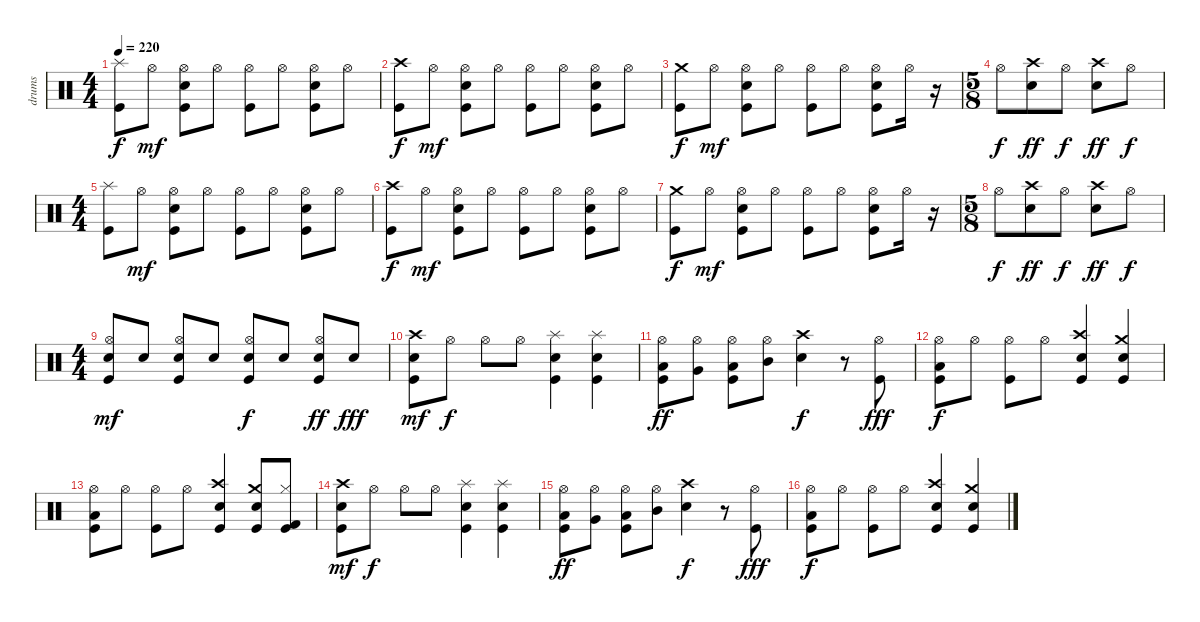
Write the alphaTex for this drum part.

\track ("drums" "drums") {instrument percussion}
\staff {score}
\articulation defaults
\ts (4 4)
\tempo 220
\clef neutral
\ks c
("Splash (hit)" "Kick (hit)").8{dy f} "Hi-Hat (open)".8{dy mf} ("Hi-Hat (open)" "Snare (hit) 2" "Kick (hit)").8 "Hi-Hat (open)".8 ("Hi-Hat (open)" "Kick (hit)").8 "Hi-Hat (open)".8 ("Hi-Hat (open)" "Snare (hit) 2" "Kick (hit)").8 "Hi-Hat (open)".8 |
("Crash high (hit)" "Kick (hit)").8{dy f} "Hi-Hat (open)".8{dy mf} ("Hi-Hat (open)" "Snare (hit) 2" "Kick (hit)").8 "Hi-Hat (open)".8 ("Hi-Hat (open)" "Kick (hit)").8 "Hi-Hat (open)".8 ("Hi-Hat (open)" "Snare (hit) 2" "Kick (hit)").8 "Hi-Hat (open)".8 |
("Crash medium (hit)" "Kick (hit)").8{dy f} "Hi-Hat (open)".8{dy mf} ("Hi-Hat (open)" "Snare (hit) 2" "Kick (hit)").8 "Hi-Hat (open)".8 ("Hi-Hat (open)" "Kick (hit)").8 "Hi-Hat (open)".8 ("Hi-Hat (open)" "Snare (hit) 2" "Kick (hit)").8 "Hi-Hat (open)".16 r.16 |
\ts (5 8)
"Hi-Hat (open)".8{dy f} ("Crash high (hit)" "Snare (hit) 2").8{dy ff} "Hi-Hat (open)".8{dy f} ("Crash high (hit)" "Snare (hit) 2").8{dy ff} "Hi-Hat (open)".8{dy f} |
\ts (4 4)
("Splash (hit)" "Kick (hit)").8 "Hi-Hat (open)".8{dy mf} ("Hi-Hat (open)" "Snare (hit) 2" "Kick (hit)").8 "Hi-Hat (open)".8 ("Hi-Hat (open)" "Kick (hit)").8 "Hi-Hat (open)".8 ("Hi-Hat (open)" "Snare (hit) 2" "Kick (hit)").8 "Hi-Hat (open)".8 |
("Crash high (hit)" "Kick (hit)").8{dy f} "Hi-Hat (open)".8{dy mf} ("Hi-Hat (open)" "Snare (hit) 2" "Kick (hit)").8 "Hi-Hat (open)".8 ("Hi-Hat (open)" "Kick (hit)").8 "Hi-Hat (open)".8 ("Hi-Hat (open)" "Snare (hit) 2" "Kick (hit)").8 "Hi-Hat (open)".8 |
("Crash medium (hit)" "Kick (hit)").8{dy f} "Hi-Hat (open)".8{dy mf} ("Hi-Hat (open)" "Snare (hit) 2" "Kick (hit)").8 "Hi-Hat (open)".8 ("Hi-Hat (open)" "Kick (hit)").8 "Hi-Hat (open)".8 ("Hi-Hat (open)" "Snare (hit) 2" "Kick (hit)").8 "Hi-Hat (open)".16 r.16 |
\ts (5 8)
"Hi-Hat (open)".8{dy f} ("Crash high (hit)" "Snare (hit) 2").8{dy ff} "Hi-Hat (open)".8{dy f} ("Crash high (hit)" "Snare (hit) 2").8{dy ff} "Hi-Hat (open)".8{dy f} |
\ts (4 4)
("Hi-Hat (open)" "Electric Snare (hit)" "Kick (hit)").8{dy mf} "Electric Snare (hit)".8 ("Hi-Hat (open)" "Electric Snare (hit)" "Kick (hit)").8 "Electric Snare (hit)".8 ("Hi-Hat (open)" "Electric Snare (hit)" "Kick (hit)").8{dy f} "Electric Snare (hit)".8 ("Hi-Hat (open)" "Electric Snare (hit)" "Kick (hit)").8{dy ff} "Electric Snare (hit)".8{dy fff} |
("Electric Snare (hit)" "Crash high (hit)" "Kick (hit)").8{dy mf} "Hi-Hat (open)".8{dy f} "Hi-Hat (open)".8 "Hi-Hat (open)".8 ("Electric Snare (hit)" "Splash (hit)" "Kick (hit)").4 ("Electric Snare (hit)" "Splash (hit)" "Kick (hit)").4 |
("Hi-Hat (open)" "Low Floor Tom (hit)" "Kick (hit)").8{dy ff} ("Hi-Hat (open)" "Very Low Tom (hit)").8 ("Hi-Hat (open)" "Low Tom (hit)" "Kick (hit)").8 ("Hi-Hat (open)" "Mid Tom (hit)").8 ("Crash high (hit)" "Electric Snare (hit)").4{dy f} r.8 ("Hi-Hat (open)" "Kick (hit)").8{dy fff} |
("Low Tom (hit)" "Kick (hit)" "Hi-Hat (open)").8{dy f} "Hi-Hat (open)".8 ("Kick (hit)" "Hi-Hat (open)").8 "Hi-Hat (open)".8 ("Crash high (hit)" "Electric Snare (hit)" "Kick (hit)").4 ("Crash medium (hit)" "Electric Snare (hit)" "Kick (hit)").4 |
("Low Tom (hit)" "Kick (hit)" "Hi-Hat (open)").8 "Hi-Hat (open)".8 ("Kick (hit)" "Hi-Hat (open)").8 "Hi-Hat (open)".8 ("Crash high (hit)" "Electric Snare (hit)" "Kick (hit)").4 ("Crash medium (hit)" "Electric Snare (hit)" "Kick (hit)").8 ("Hi-Hat (closed)" "Kick (hit) 2" "Kick (hit)").8 |
("Electric Snare (hit)" "Crash high (hit)" "Kick (hit)").8{dy mf} "Hi-Hat (open)".8{dy f} "Hi-Hat (open)".8 "Hi-Hat (open)".8 ("Electric Snare (hit)" "Splash (hit)" "Kick (hit)").4 ("Electric Snare (hit)" "Splash (hit)" "Kick (hit)").4 |
("Hi-Hat (open)" "Low Floor Tom (hit)" "Kick (hit)").8{dy ff} ("Hi-Hat (open)" "Very Low Tom (hit)").8 ("Hi-Hat (open)" "Low Tom (hit)" "Kick (hit)").8 ("Hi-Hat (open)" "Mid Tom (hit)").8 ("Crash high (hit)" "Electric Snare (hit)").4{dy f} r.8 ("Hi-Hat (open)" "Kick (hit)").8{dy fff} |
("Low Tom (hit)" "Kick (hit)" "Hi-Hat (open)").8{dy f} "Hi-Hat (open)".8 ("Kick (hit)" "Hi-Hat (open)").8 "Hi-Hat (open)".8 ("Crash high (hit)" "Electric Snare (hit)" "Kick (hit)").4 ("Crash medium (hit)" "Electric Snare (hit)" "Kick (hit)").4
